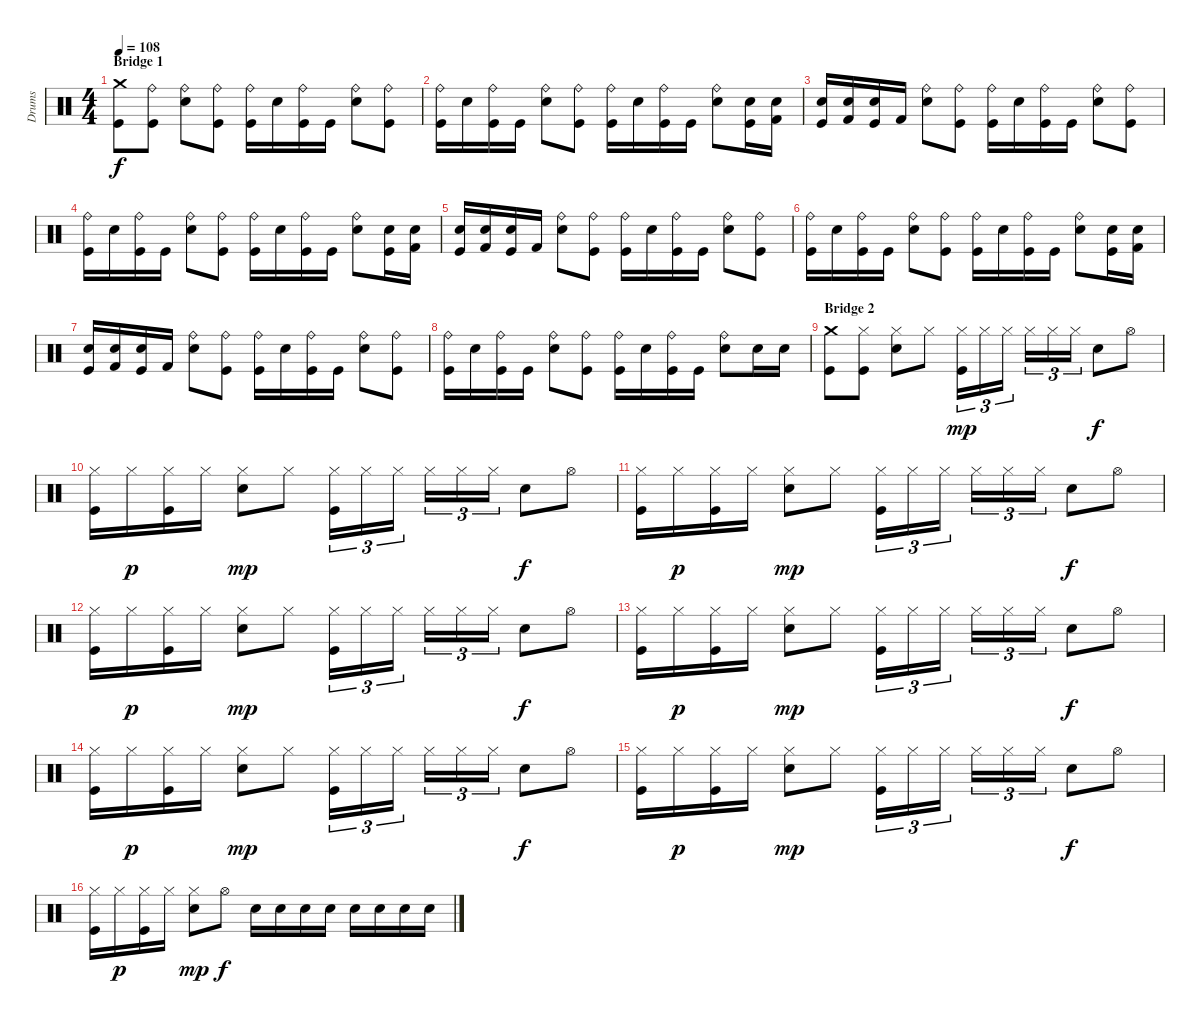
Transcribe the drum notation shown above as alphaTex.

\track ("Drums" "Drums") {instrument percussion}
\staff {score}
\articulation defaults
\ts (4 4)
\section ("" "Bridge 1")
\tempo 108
\clef neutral
\ks c
("Crash medium (hit)" "Kick (hit)").8{dy f} ("Ride (bell)" "Kick (hit)").8 ("Ride (bell)" "Electric Snare (hit)").8 ("Ride (bell)" "Kick (hit)").8 ("Ride (bell)" "Kick (hit)").16 "Electric Snare (hit)".16 ("Ride (bell)" "Kick (hit)").16 "Kick (hit)".16 ("Ride (bell)" "Electric Snare (hit)").8 ("Ride (bell)" "Kick (hit)").8 |
("Ride (bell)" "Kick (hit)").16 "Electric Snare (hit)".16 ("Ride (bell)" "Kick (hit)").16 "Kick (hit)".16 ("Ride (bell)" "Electric Snare (hit)").8 ("Ride (bell)" "Kick (hit)").8 ("Ride (bell)" "Kick (hit)").16 "Electric Snare (hit)".16 ("Ride (bell)" "Kick (hit)").16 "Kick (hit)".16 ("Ride (bell)" "Electric Snare (hit)").8 ("Electric Snare (hit)" "Kick (hit)").16 ("Electric Snare (hit)" "Kick (hit) 2").16 |
("Electric Snare (hit)" "Kick (hit)").16 ("Electric Snare (hit)" "Kick (hit) 2").16 ("Electric Snare (hit)" "Kick (hit)").16 "Kick (hit) 2".16 ("Ride (bell)" "Electric Snare (hit)").8 ("Ride (bell)" "Kick (hit)").8 ("Ride (bell)" "Kick (hit)").16 "Electric Snare (hit)".16 ("Ride (bell)" "Kick (hit)").16 "Kick (hit)".16 ("Ride (bell)" "Electric Snare (hit)").8 ("Ride (bell)" "Kick (hit)").8 |
("Ride (bell)" "Kick (hit)").16 "Electric Snare (hit)".16 ("Ride (bell)" "Kick (hit)").16 "Kick (hit)".16 ("Ride (bell)" "Electric Snare (hit)").8 ("Ride (bell)" "Kick (hit)").8 ("Ride (bell)" "Kick (hit)").16 "Electric Snare (hit)".16 ("Ride (bell)" "Kick (hit)").16 "Kick (hit)".16 ("Ride (bell)" "Electric Snare (hit)").8 ("Electric Snare (hit)" "Kick (hit)").16 ("Electric Snare (hit)" "Kick (hit) 2").16 |
("Electric Snare (hit)" "Kick (hit)").16 ("Electric Snare (hit)" "Kick (hit) 2").16 ("Electric Snare (hit)" "Kick (hit)").16 "Kick (hit) 2".16 ("Ride (bell)" "Electric Snare (hit)").8 ("Ride (bell)" "Kick (hit)").8 ("Ride (bell)" "Kick (hit)").16 "Electric Snare (hit)".16 ("Ride (bell)" "Kick (hit)").16 "Kick (hit)".16 ("Ride (bell)" "Electric Snare (hit)").8 ("Ride (bell)" "Kick (hit)").8 |
("Ride (bell)" "Kick (hit)").16 "Electric Snare (hit)".16 ("Ride (bell)" "Kick (hit)").16 "Kick (hit)".16 ("Ride (bell)" "Electric Snare (hit)").8 ("Ride (bell)" "Kick (hit)").8 ("Ride (bell)" "Kick (hit)").16 "Electric Snare (hit)".16 ("Ride (bell)" "Kick (hit)").16 "Kick (hit)".16 ("Ride (bell)" "Electric Snare (hit)").8 ("Electric Snare (hit)" "Kick (hit)").16 ("Electric Snare (hit)" "Kick (hit) 2").16 |
("Electric Snare (hit)" "Kick (hit)").16 ("Electric Snare (hit)" "Kick (hit) 2").16 ("Electric Snare (hit)" "Kick (hit)").16 "Kick (hit) 2".16 ("Ride (bell)" "Electric Snare (hit)").8 ("Ride (bell)" "Kick (hit)").8 ("Ride (bell)" "Kick (hit)").16 "Electric Snare (hit)".16 ("Ride (bell)" "Kick (hit)").16 "Kick (hit)".16 ("Ride (bell)" "Electric Snare (hit)").8 ("Ride (bell)" "Kick (hit)").8 |
("Ride (bell)" "Kick (hit)").16 "Electric Snare (hit)".16 ("Ride (bell)" "Kick (hit)").16 "Kick (hit)".16 ("Ride (bell)" "Electric Snare (hit)").8 ("Ride (bell)" "Kick (hit)").8 ("Ride (bell)" "Kick (hit)").16 "Electric Snare (hit)".16 ("Ride (bell)" "Kick (hit)").16 "Kick (hit)".16 ("Ride (bell)" "Electric Snare (hit)").8 "Electric Snare (hit)".16 "Electric Snare (hit)".16 |
\section ("" "Bridge 2")
("Crash medium (hit)" "Kick (hit)").8 ("Hi-Hat (closed)" "Kick (hit)").8 ("Hi-Hat (closed)" "Electric Snare (hit)").8 "Hi-Hat (closed)".8 ("Hi-Hat (closed)" "Kick (hit)").16{tu (3 2) dy mp} "Hi-Hat (closed)".16{tu (3 2)} "Hi-Hat (closed)".16{tu (3 2)} "Hi-Hat (closed)".16{tu (3 2)} "Hi-Hat (closed)".16{tu (3 2)} "Hi-Hat (closed)".16{tu (3 2)} "Electric Snare (hit)".8{dy f} "Hi-Hat (open)".8 |
("Hi-Hat (closed)" "Kick (hit)").16 "Hi-Hat (closed)".16{dy p} ("Hi-Hat (closed)" "Kick (hit)").16 "Hi-Hat (closed)".16 ("Hi-Hat (closed)" "Electric Snare (hit)").8{dy mp} "Hi-Hat (closed)".8 ("Hi-Hat (closed)" "Kick (hit)").16{tu (3 2)} "Hi-Hat (closed)".16{tu (3 2)} "Hi-Hat (closed)".16{tu (3 2)} "Hi-Hat (closed)".16{tu (3 2)} "Hi-Hat (closed)".16{tu (3 2)} "Hi-Hat (closed)".16{tu (3 2)} "Electric Snare (hit)".8{dy f} "Hi-Hat (open)".8 |
("Hi-Hat (closed)" "Kick (hit)").16 "Hi-Hat (closed)".16{dy p} ("Hi-Hat (closed)" "Kick (hit)").16 "Hi-Hat (closed)".16 ("Hi-Hat (closed)" "Electric Snare (hit)").8{dy mp} "Hi-Hat (closed)".8 ("Hi-Hat (closed)" "Kick (hit)").16{tu (3 2)} "Hi-Hat (closed)".16{tu (3 2)} "Hi-Hat (closed)".16{tu (3 2)} "Hi-Hat (closed)".16{tu (3 2)} "Hi-Hat (closed)".16{tu (3 2)} "Hi-Hat (closed)".16{tu (3 2)} "Electric Snare (hit)".8{dy f} "Hi-Hat (open)".8 |
("Hi-Hat (closed)" "Kick (hit)").16 "Hi-Hat (closed)".16{dy p} ("Hi-Hat (closed)" "Kick (hit)").16 "Hi-Hat (closed)".16 ("Hi-Hat (closed)" "Electric Snare (hit)").8{dy mp} "Hi-Hat (closed)".8 ("Hi-Hat (closed)" "Kick (hit)").16{tu (3 2)} "Hi-Hat (closed)".16{tu (3 2)} "Hi-Hat (closed)".16{tu (3 2)} "Hi-Hat (closed)".16{tu (3 2)} "Hi-Hat (closed)".16{tu (3 2)} "Hi-Hat (closed)".16{tu (3 2)} "Electric Snare (hit)".8{dy f} "Hi-Hat (open)".8 |
("Hi-Hat (closed)" "Kick (hit)").16 "Hi-Hat (closed)".16{dy p} ("Hi-Hat (closed)" "Kick (hit)").16 "Hi-Hat (closed)".16 ("Hi-Hat (closed)" "Electric Snare (hit)").8{dy mp} "Hi-Hat (closed)".8 ("Hi-Hat (closed)" "Kick (hit)").16{tu (3 2)} "Hi-Hat (closed)".16{tu (3 2)} "Hi-Hat (closed)".16{tu (3 2)} "Hi-Hat (closed)".16{tu (3 2)} "Hi-Hat (closed)".16{tu (3 2)} "Hi-Hat (closed)".16{tu (3 2)} "Electric Snare (hit)".8{dy f} "Hi-Hat (open)".8 |
("Hi-Hat (closed)" "Kick (hit)").16 "Hi-Hat (closed)".16{dy p} ("Hi-Hat (closed)" "Kick (hit)").16 "Hi-Hat (closed)".16 ("Hi-Hat (closed)" "Electric Snare (hit)").8{dy mp} "Hi-Hat (closed)".8 ("Hi-Hat (closed)" "Kick (hit)").16{tu (3 2)} "Hi-Hat (closed)".16{tu (3 2)} "Hi-Hat (closed)".16{tu (3 2)} "Hi-Hat (closed)".16{tu (3 2)} "Hi-Hat (closed)".16{tu (3 2)} "Hi-Hat (closed)".16{tu (3 2)} "Electric Snare (hit)".8{dy f} "Hi-Hat (open)".8 |
("Hi-Hat (closed)" "Kick (hit)").16 "Hi-Hat (closed)".16{dy p} ("Hi-Hat (closed)" "Kick (hit)").16 "Hi-Hat (closed)".16 ("Hi-Hat (closed)" "Electric Snare (hit)").8{dy mp} "Hi-Hat (closed)".8 ("Hi-Hat (closed)" "Kick (hit)").16{tu (3 2)} "Hi-Hat (closed)".16{tu (3 2)} "Hi-Hat (closed)".16{tu (3 2)} "Hi-Hat (closed)".16{tu (3 2)} "Hi-Hat (closed)".16{tu (3 2)} "Hi-Hat (closed)".16{tu (3 2)} "Electric Snare (hit)".8{dy f} "Hi-Hat (open)".8 |
("Hi-Hat (closed)" "Kick (hit)").16 "Hi-Hat (closed)".16{dy p} ("Hi-Hat (closed)" "Kick (hit)").16 "Hi-Hat (closed)".16 ("Hi-Hat (closed)" "Electric Snare (hit)").8{dy mp} "Hi-Hat (open)".8{dy f} "Electric Snare (hit)".16 "Electric Snare (hit)".16 "Electric Snare (hit)".16 "Electric Snare (hit)".16 "Electric Snare (hit)".16 "Electric Snare (hit)".16 "Electric Snare (hit)".16 "Electric Snare (hit)".16
